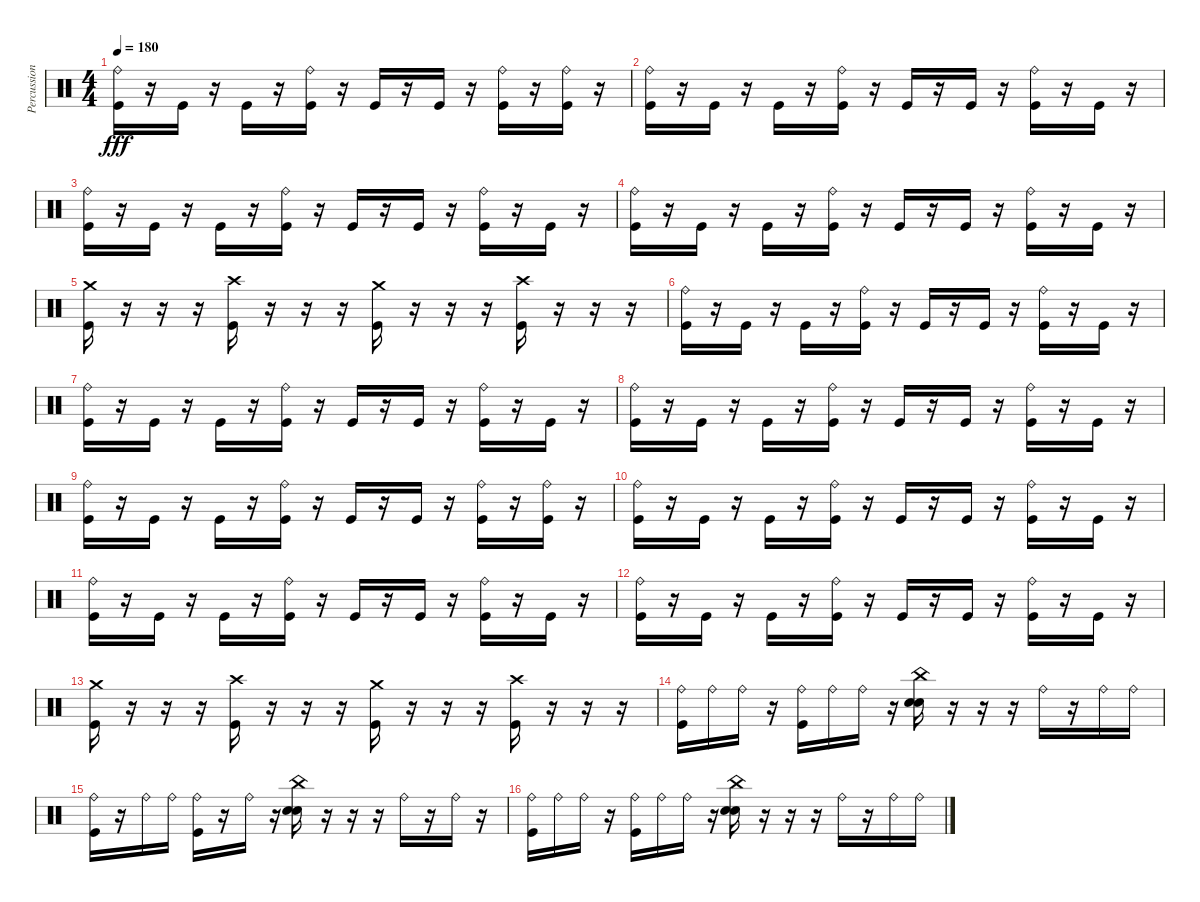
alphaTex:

\track ("Percussion" "Percussion") {instrument percussion}
\staff {score}
\articulation defaults
\ts (4 4)
\tempo 180
\clef neutral
\ks c
("Ride (bell)" "Kick (hit)").16{dy fff} r.16 "Kick (hit)".16 r.16 "Kick (hit)".16 r.16 ("Ride (bell)" "Kick (hit)").16 r.16 "Kick (hit)".16 r.16 "Kick (hit)".16 r.16 ("Ride (bell)" "Kick (hit)").16 r.16 ("Ride (bell)" "Kick (hit)").16 r.16 |
("Ride (bell)" "Kick (hit)").16 r.16 "Kick (hit)".16 r.16 "Kick (hit)".16 r.16 ("Ride (bell)" "Kick (hit)").16 r.16 "Kick (hit)".16 r.16 "Kick (hit)".16 r.16 ("Ride (bell)" "Kick (hit)").16 r.16 "Kick (hit)".16 r.16 |
("Ride (bell)" "Kick (hit)").16 r.16 "Kick (hit)".16 r.16 "Kick (hit)".16 r.16 ("Ride (bell)" "Kick (hit)").16 r.16 "Kick (hit)".16 r.16 "Kick (hit)".16 r.16 ("Ride (bell)" "Kick (hit)").16 r.16 "Kick (hit)".16 r.16 |
("Ride (bell)" "Kick (hit)").16 r.16 "Kick (hit)".16 r.16 "Kick (hit)".16 r.16 ("Ride (bell)" "Kick (hit)").16 r.16 "Kick (hit)".16 r.16 "Kick (hit)".16 r.16 ("Ride (bell)" "Kick (hit)").16 r.16 "Kick (hit)".16 r.16 |
("Crash medium (hit)" "Kick (hit)").16 r.16 r.16 r.16 ("Crash high (hit)" "Kick (hit)").16 r.16 r.16 r.16 ("Crash medium (hit)" "Kick (hit)").16 r.16 r.16 r.16 ("Crash high (hit)" "Kick (hit)").16 r.16 r.16 r.16 |
("Ride (bell)" "Kick (hit)").16 r.16 "Kick (hit)".16 r.16 "Kick (hit)".16 r.16 ("Ride (bell)" "Kick (hit)").16 r.16 "Kick (hit)".16 r.16 "Kick (hit)".16 r.16 ("Ride (bell)" "Kick (hit)").16 r.16 "Kick (hit)".16 r.16 |
("Ride (bell)" "Kick (hit)").16 r.16 "Kick (hit)".16 r.16 "Kick (hit)".16 r.16 ("Ride (bell)" "Kick (hit)").16 r.16 "Kick (hit)".16 r.16 "Kick (hit)".16 r.16 ("Ride (bell)" "Kick (hit)").16 r.16 "Kick (hit)".16 r.16 |
("Ride (bell)" "Kick (hit)").16 r.16 "Kick (hit)".16 r.16 "Kick (hit)".16 r.16 ("Ride (bell)" "Kick (hit)").16 r.16 "Kick (hit)".16 r.16 "Kick (hit)".16 r.16 ("Ride (bell)" "Kick (hit)").16 r.16 "Kick (hit)".16 r.16 |
("Ride (bell)" "Kick (hit)").16 r.16 "Kick (hit)".16 r.16 "Kick (hit)".16 r.16 ("Ride (bell)" "Kick (hit)").16 r.16 "Kick (hit)".16 r.16 "Kick (hit)".16 r.16 ("Ride (bell)" "Kick (hit)").16 r.16 ("Ride (bell)" "Kick (hit)").16 r.16 |
("Ride (bell)" "Kick (hit)").16 r.16 "Kick (hit)".16 r.16 "Kick (hit)".16 r.16 ("Ride (bell)" "Kick (hit)").16 r.16 "Kick (hit)".16 r.16 "Kick (hit)".16 r.16 ("Ride (bell)" "Kick (hit)").16 r.16 "Kick (hit)".16 r.16 |
("Ride (bell)" "Kick (hit)").16 r.16 "Kick (hit)".16 r.16 "Kick (hit)".16 r.16 ("Ride (bell)" "Kick (hit)").16 r.16 "Kick (hit)".16 r.16 "Kick (hit)".16 r.16 ("Ride (bell)" "Kick (hit)").16 r.16 "Kick (hit)".16 r.16 |
("Ride (bell)" "Kick (hit)").16 r.16 "Kick (hit)".16 r.16 "Kick (hit)".16 r.16 ("Ride (bell)" "Kick (hit)").16 r.16 "Kick (hit)".16 r.16 "Kick (hit)".16 r.16 ("Ride (bell)" "Kick (hit)").16 r.16 "Kick (hit)".16 r.16 |
("Crash medium (hit)" "Kick (hit)").16 r.16 r.16 r.16 ("Crash high (hit)" "Kick (hit)").16 r.16 r.16 r.16 ("Crash medium (hit)" "Kick (hit)").16 r.16 r.16 r.16 ("Crash high (hit)" "Kick (hit)").16 r.16 r.16 r.16 |
("Ride (bell)" "Kick (hit)").16 "Ride (bell)".16 "Ride (bell)".16 r.16 ("Ride (bell)" "Kick (hit)").16 "Ride (bell)".16 "Ride (bell)".16 r.16 ("China (hit)" "Snare (hit) 2" "Electric Snare (hit)").16 r.16 r.16 r.16 "Ride (bell)".16 r.16 "Ride (bell)".16 "Ride (bell)".16 |
("Ride (bell)" "Kick (hit)").16 r.16 "Ride (bell)".16 "Ride (bell)".16 ("Ride (bell)" "Kick (hit)").16 r.16 "Ride (bell)".16 r.16 ("China (hit)" "Snare (hit) 2" "Electric Snare (hit)").16 r.16 r.16 r.16 "Ride (bell)".16 r.16 "Ride (bell)".16 r.16 |
("Ride (bell)" "Kick (hit)").16 "Ride (bell)".16 "Ride (bell)".16 r.16 ("Ride (bell)" "Kick (hit)").16 "Ride (bell)".16 "Ride (bell)".16 r.16 ("China (hit)" "Snare (hit) 2" "Electric Snare (hit)").16 r.16 r.16 r.16 "Ride (bell)".16 r.16 "Ride (bell)".16 "Ride (bell)".16
